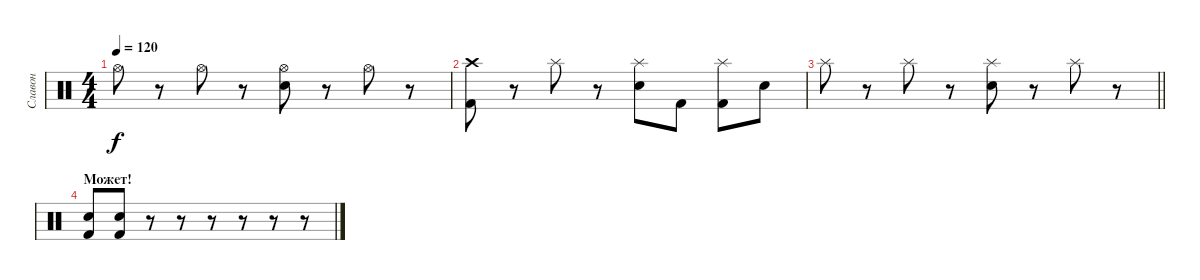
\track ("Славон" "Славон") {instrument percussion}
\staff {score}
\articulation defaults
\ts (4 4)
\tempo 120
\clef neutral
\ks c "Hi-Hat (open)".8{dy f}
r.8 "Hi-Hat (open)".8 r.8 ("Hi-Hat (open)" "Electric Snare (hit)").8 r.8 "Hi-Hat (open)".8 r.8 |
("Crash high (hit)" "Kick (hit) 2").8 r.8 "Splash (hit)".8 r.8 ("Splash (hit)" "Electric Snare (hit)").8 "Kick (hit) 2".8 ("Splash (hit)" "Kick (hit) 2").8 "Electric Snare (hit)".8 |
\barLineRight lightlight "Splash (hit)".8
r.8 "Splash (hit)".8 r.8 ("Splash (hit)" "Electric Snare (hit)").8 r.8 "Splash (hit)".8 r.8 |
\section ("" "Может!")
("Electric Snare (hit)" "Kick (hit) 2").8 ("Electric Snare (hit)" "Kick (hit) 2").8 r.8 r.8 r.8 r.8 r.8 r.8
